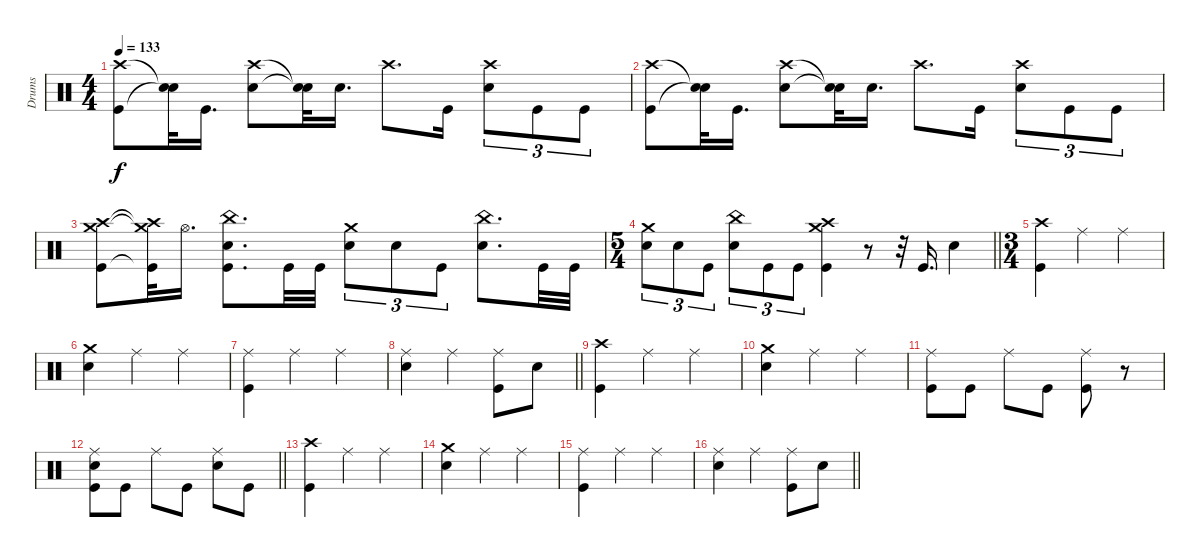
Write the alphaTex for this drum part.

\track ("Drums" "Drums") {instrument percussion}
\staff
\articulation defaults
\ts (4 4)
\tempo 133
\clef neutral
\ks c
("Crash high (hit)" "Kick (hit)").8{dy f} ("Snare (hit)"{t} "Snare (hit)"{t}).32 "Kick (hit)".16{d} ("Crash high (hit)" "Electric Snare (hit)").8 ("Snare (hit)"{t} "Snare (hit)"{t}).32 "Electric Snare (hit)".16{d} "Crash high (hit)".8{d} "Kick (hit)".16 ("Crash high (hit)" "Electric Snare (hit)").8{tu (3 2)} "Kick (hit)".8{tu (3 2)} "Kick (hit)".8{tu (3 2)} |
("Crash high (hit)" "Kick (hit)").8 ("Snare (hit)"{t} "Snare (hit)"{t}).32 "Kick (hit)".16{d} ("Crash high (hit)" "Electric Snare (hit)").8 ("Snare (hit)"{t} "Snare (hit)"{t}).32 "Electric Snare (hit)".16{d} "Crash high (hit)".8{d} "Kick (hit)".16 ("Crash high (hit)" "Electric Snare (hit)").8{tu (3 2)} "Kick (hit)".8{tu (3 2)} "Kick (hit)".8{tu (3 2)} |
("Crash high (hit)" "Crash medium (hit)" "Kick (hit)").8 ("Crash high (hit)"{t} "Crash medium (hit)"{t} "Kick (hit)"{t}).32 "Hi-Hat (open)".16{d} ("China (hit)" "Electric Snare (hit)" "Kick (hit)").8{d} "Kick (hit)".32 "Kick (hit)".32 ("Crash medium (hit)" "Electric Snare (hit)").8{tu (3 2)} "Electric Snare (hit)".8{tu (3 2)} "Kick (hit)".8{tu (3 2)} ("China (hit)" "Electric Snare (hit)").8{d} "Kick (hit)".32 "Kick (hit)".32 |
\ts (5 4)
\barLineRight lightlight
("Crash medium (hit)" "Electric Snare (hit)").8{tu (3 2)} "Electric Snare (hit)".8{tu (3 2)} "Kick (hit)".8{tu (3 2)} ("China (hit)" "Electric Snare (hit)").8{tu (3 2)} "Kick (hit)".8{tu (3 2)} "Kick (hit)".8{tu (3 2)} ("Crash high (hit)" "Crash medium (hit)" "Kick (hit)").4 r.8 r.32 "Kick (hit)".16{d} "Electric Snare (hit)".4 |
\ts (3 4)
\section ("" "")
("Crash high (hit)" "Kick (hit)").4 "Ride (middle)".4 "Ride (middle)".4 |
("Crash medium (hit)" "Electric Snare (hit)").4 "Ride (middle)".4 "Ride (middle)".4 |
("Ride (middle)" "Kick (hit)").4 "Ride (middle)".4 "Ride (middle)".4 |
\barLineRight lightlight
("Ride (middle)" "Electric Snare (hit)").4 "Ride (middle)".4 ("Ride (middle)" "Kick (hit)").8 "Electric Snare (hit)".8 |
("Crash high (hit)" "Kick (hit)").4 "Ride (middle)".4 "Ride (middle)".4 |
("Crash medium (hit)" "Electric Snare (hit)").4 "Ride (middle)".4 "Ride (middle)".4 |
("Ride (middle)" "Kick (hit)").8 "Kick (hit)".8 "Ride (middle)".8 "Kick (hit)".8 ("Ride (middle)" "Kick (hit)").8 r.8 |
\barLineRight lightlight
("Ride (middle)" "Electric Snare (hit)" "Kick (hit)").8 "Kick (hit)".8 "Ride (middle)".8 "Kick (hit)".8 ("Ride (middle)" "Electric Snare (hit)").8 "Kick (hit)".8 |
("Crash high (hit)" "Kick (hit)").4 "Ride (middle)".4 "Ride (middle)".4 |
("Crash medium (hit)" "Electric Snare (hit)").4 "Ride (middle)".4 "Ride (middle)".4 |
("Ride (middle)" "Kick (hit)").4 "Ride (middle)".4 "Ride (middle)".4 |
\barLineRight lightlight
("Ride (middle)" "Electric Snare (hit)").4 "Ride (middle)".4 ("Ride (middle)" "Kick (hit)").8 "Electric Snare (hit)".8
